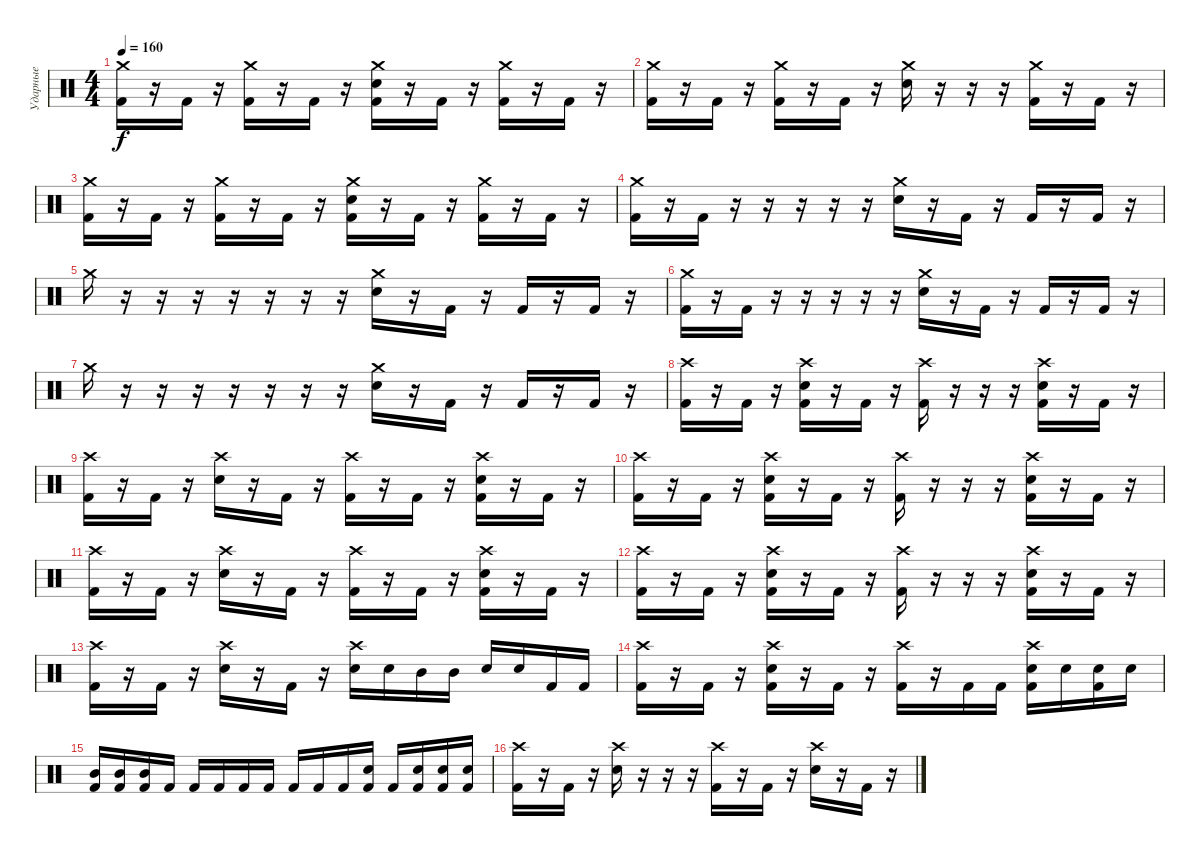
\track ("Ударные" "Ударные") {instrument percussion}
\staff {score}
\articulation defaults
\ts (4 4)
\tempo 160
\clef neutral
\ks c
("Crash medium (hit)" "Kick (hit) 2").16{dy f} r.16 "Kick (hit) 2".16 r.16 ("Crash medium (hit)" "Kick (hit) 2").16 r.16 "Kick (hit) 2".16 r.16 ("Crash medium (hit)" "Electric Snare (hit)" "Kick (hit) 2").16 r.16 "Kick (hit) 2".16 r.16 ("Crash medium (hit)" "Kick (hit) 2").16 r.16 "Kick (hit) 2".16 r.16 |
("Crash medium (hit)" "Kick (hit) 2").16 r.16 "Kick (hit) 2".16 r.16 ("Crash medium (hit)" "Kick (hit) 2").16 r.16 "Kick (hit) 2".16 r.16 ("Crash medium (hit)" "Electric Snare (hit)").16 r.16 r.16 r.16 ("Crash medium (hit)" "Kick (hit) 2").16 r.16 "Kick (hit) 2".16 r.16 |
("Crash medium (hit)" "Kick (hit) 2").16 r.16 "Kick (hit) 2".16 r.16 ("Crash medium (hit)" "Kick (hit) 2").16 r.16 "Kick (hit) 2".16 r.16 ("Crash medium (hit)" "Electric Snare (hit)" "Kick (hit) 2").16 r.16 "Kick (hit) 2".16 r.16 ("Crash medium (hit)" "Kick (hit) 2").16 r.16 "Kick (hit) 2".16 r.16 |
("Crash medium (hit)" "Kick (hit) 2").16 r.16 "Kick (hit) 2".16 r.16 r.16 r.16 r.16 r.16 ("Crash medium (hit)" "Electric Snare (hit)").16 r.16 "Kick (hit) 2".16 r.16 "Kick (hit) 2".16 r.16 "Kick (hit) 2".16 r.16 |
"Crash medium (hit)".16 r.16 r.16 r.16 r.16 r.16 r.16 r.16 ("Crash medium (hit)" "Electric Snare (hit)").16 r.16 "Kick (hit) 2".16 r.16 "Kick (hit) 2".16 r.16 "Kick (hit) 2".16 r.16 |
("Crash medium (hit)" "Kick (hit) 2").16 r.16 "Kick (hit) 2".16 r.16 r.16 r.16 r.16 r.16 ("Crash medium (hit)" "Electric Snare (hit)").16 r.16 "Kick (hit) 2".16 r.16 "Kick (hit) 2".16 r.16 "Kick (hit) 2".16 r.16 |
"Crash medium (hit)".16 r.16 r.16 r.16 r.16 r.16 r.16 r.16 ("Crash medium (hit)" "Electric Snare (hit)").16 r.16 "Kick (hit) 2".16 r.16 "Kick (hit) 2".16 r.16 "Kick (hit) 2".16 r.16 |
("Crash high (hit)" "Kick (hit) 2").16 r.16 "Kick (hit) 2".16 r.16 ("Crash high (hit)" "Electric Snare (hit)" "Kick (hit) 2").16 r.16 "Kick (hit) 2".16 r.16 ("Crash high (hit)" "Kick (hit) 2").16 r.16 r.16 r.16 ("Crash high (hit)" "Electric Snare (hit)" "Kick (hit) 2").16 r.16 "Kick (hit) 2".16 r.16 |
("Crash high (hit)" "Kick (hit) 2").16 r.16 "Kick (hit) 2".16 r.16 ("Crash high (hit)" "Electric Snare (hit)").16 r.16 "Kick (hit) 2".16 r.16 ("Crash high (hit)" "Kick (hit) 2").16 r.16 "Kick (hit) 2".16 r.16 ("Crash high (hit)" "Electric Snare (hit)" "Kick (hit) 2").16 r.16 "Kick (hit) 2".16 r.16 |
("Crash high (hit)" "Kick (hit) 2").16 r.16 "Kick (hit) 2".16 r.16 ("Crash high (hit)" "Electric Snare (hit)" "Kick (hit) 2").16 r.16 "Kick (hit) 2".16 r.16 ("Crash high (hit)" "Kick (hit) 2").16 r.16 r.16 r.16 ("Crash high (hit)" "Electric Snare (hit)" "Kick (hit) 2").16 r.16 "Kick (hit) 2".16 r.16 |
("Crash high (hit)" "Kick (hit) 2").16 r.16 "Kick (hit) 2".16 r.16 ("Crash high (hit)" "Electric Snare (hit)").16 r.16 "Kick (hit) 2".16 r.16 ("Crash high (hit)" "Kick (hit) 2").16 r.16 "Kick (hit) 2".16 r.16 ("Crash high (hit)" "Electric Snare (hit)" "Kick (hit) 2").16 r.16 "Kick (hit) 2".16 r.16 |
("Crash high (hit)" "Kick (hit) 2").16 r.16 "Kick (hit) 2".16 r.16 ("Crash high (hit)" "Electric Snare (hit)" "Kick (hit) 2").16 r.16 "Kick (hit) 2".16 r.16 ("Crash high (hit)" "Kick (hit) 2").16 r.16 r.16 r.16 ("Crash high (hit)" "Electric Snare (hit)" "Kick (hit) 2").16 r.16 "Kick (hit) 2".16 r.16 |
("Crash high (hit)" "Kick (hit) 2").16 r.16 "Kick (hit) 2".16 r.16 ("Crash high (hit)" "Electric Snare (hit)").16 r.16 "Kick (hit) 2".16 r.16 ("Crash high (hit)" "Electric Snare (hit)").16 "Electric Snare (hit)".16 "Mid Tom (hit)".16 "Mid Tom (hit)".16 "Electric Snare (hit)".16 "Electric Snare (hit)".16 "Kick (hit) 2".16 "Kick (hit) 2".16 |
("Crash high (hit)" "Kick (hit) 2").16 r.16 "Kick (hit) 2".16 r.16 ("Crash high (hit)" "Electric Snare (hit)" "Kick (hit) 2").16 r.16 "Kick (hit) 2".16 r.16 ("Crash high (hit)" "Kick (hit) 2").16 r.16 "Kick (hit) 2".16 "Kick (hit) 2".16 ("Crash high (hit)" "Electric Snare (hit)" "Kick (hit) 2").16 "Electric Snare (hit)".16 ("Electric Snare (hit)" "Kick (hit) 2").16 "Electric Snare (hit)".16 |
("Mid Tom (hit)" "Kick (hit) 2").16 ("Mid Tom (hit)" "Kick (hit) 2").16 ("Mid Tom (hit)" "Kick (hit) 2").16 "Kick (hit) 2".16 "Kick (hit) 2".16 "Kick (hit) 2".16 "Kick (hit) 2".16 "Kick (hit) 2".16 "Kick (hit) 2".16 "Kick (hit) 2".16 "Kick (hit) 2".16 ("Electric Snare (hit)" "Kick (hit) 2").16 "Kick (hit) 2".16 ("Electric Snare (hit)" "Kick (hit) 2").16 ("Electric Snare (hit)" "Kick (hit) 2").16 ("Electric Snare (hit)" "Kick (hit) 2").16 |
("Crash high (hit)" "Kick (hit) 2").16 r.16 "Kick (hit) 2".16 r.16 ("Crash high (hit)" "Electric Snare (hit)").16 r.16 r.16 r.16 ("Crash high (hit)" "Kick (hit) 2").16 r.16 "Kick (hit) 2".16 r.16 ("Crash high (hit)" "Electric Snare (hit)").16 r.16 "Kick (hit) 2".16 r.16
